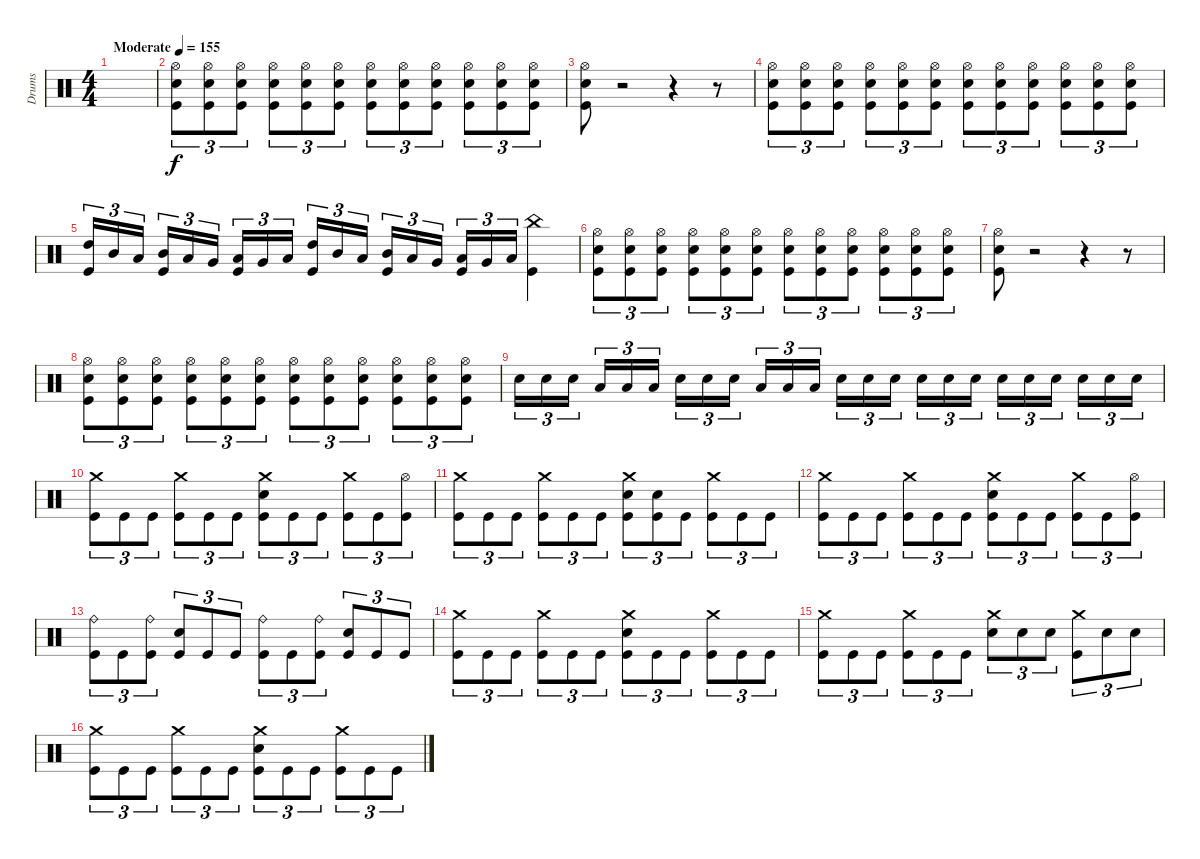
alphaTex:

\track ("Drums" "Drums") {instrument percussion}
\staff {score}
\articulation defaults
\ts (4 4)
\tempo (155 "Moderate")
\clef neutral
\ks c
|
("Hi-Hat (open)" "Electric Snare (hit)" "Kick (hit)").8{tu (3 2)} ("Hi-Hat (open)" "Electric Snare (hit)" "Kick (hit)").8{tu (3 2)} ("Hi-Hat (open)" "Electric Snare (hit)" "Kick (hit)").8{tu (3 2)} ("Hi-Hat (open)" "Electric Snare (hit)" "Kick (hit)").8{tu (3 2)} ("Hi-Hat (open)" "Electric Snare (hit)" "Kick (hit)").8{tu (3 2)} ("Hi-Hat (open)" "Electric Snare (hit)" "Kick (hit)").8{tu (3 2)} ("Hi-Hat (open)" "Electric Snare (hit)" "Kick (hit)").8{tu (3 2)} ("Hi-Hat (open)" "Electric Snare (hit)" "Kick (hit)").8{tu (3 2)} ("Hi-Hat (open)" "Electric Snare (hit)" "Kick (hit)").8{tu (3 2)} ("Hi-Hat (open)" "Electric Snare (hit)" "Kick (hit)").8{tu (3 2)} ("Hi-Hat (open)" "Electric Snare (hit)" "Kick (hit)").8{tu (3 2)} ("Hi-Hat (open)" "Electric Snare (hit)" "Kick (hit)").8{tu (3 2)} |
("Hi-Hat (open)" "Electric Snare (hit)" "Kick (hit)").8 r.2 r.4 r.8 |
("Hi-Hat (open)" "Electric Snare (hit)" "Kick (hit)").8{tu (3 2)} ("Hi-Hat (open)" "Electric Snare (hit)" "Kick (hit)").8{tu (3 2)} ("Hi-Hat (open)" "Electric Snare (hit)" "Kick (hit)").8{tu (3 2)} ("Hi-Hat (open)" "Electric Snare (hit)" "Kick (hit)").8{tu (3 2)} ("Hi-Hat (open)" "Electric Snare (hit)" "Kick (hit)").8{tu (3 2)} ("Hi-Hat (open)" "Electric Snare (hit)" "Kick (hit)").8{tu (3 2)} ("Hi-Hat (open)" "Electric Snare (hit)" "Kick (hit)").8{tu (3 2)} ("Hi-Hat (open)" "Electric Snare (hit)" "Kick (hit)").8{tu (3 2)} ("Hi-Hat (open)" "Electric Snare (hit)" "Kick (hit)").8{tu (3 2)} ("Hi-Hat (open)" "Electric Snare (hit)" "Kick (hit)").8{tu (3 2)} ("Hi-Hat (open)" "Electric Snare (hit)" "Kick (hit)").8{tu (3 2)} ("Hi-Hat (open)" "Electric Snare (hit)" "Kick (hit)").8{tu (3 2)} |
("High Tom (hit)" "Kick (hit)").16{tu (3 2)} "Mid Tom (hit)".16{tu (3 2)} "Low Tom (hit)".16{tu (3 2) beam splitsecondary} ("Mid Tom (hit)" "Kick (hit)").16{tu (3 2)} "Low Tom (hit)".16{tu (3 2)} "Very Low Tom (hit)".16{tu (3 2)} ("Low Tom (hit)" "Kick (hit)").16{tu (3 2)} "Very Low Tom (hit)".16{tu (3 2)} "Low Floor Tom (hit)".16{tu (3 2) beam splitsecondary} ("High Tom (hit)" "Kick (hit)").16{tu (3 2)} "Mid Tom (hit)".16{tu (3 2)} "Low Tom (hit)".16{tu (3 2)} ("Mid Tom (hit)" "Kick (hit)").16{tu (3 2)} "Low Tom (hit)".16{tu (3 2)} "Very Low Tom (hit)".16{tu (3 2) beam splitsecondary} ("Low Tom (hit)" "Kick (hit)").16{tu (3 2)} "Very Low Tom (hit)".16{tu (3 2)} "Low Floor Tom (hit)".16{tu (3 2)} ("China (hit)" "Kick (hit)").4 |
("Hi-Hat (open)" "Electric Snare (hit)" "Kick (hit)").8{tu (3 2)} ("Hi-Hat (open)" "Electric Snare (hit)" "Kick (hit)").8{tu (3 2)} ("Hi-Hat (open)" "Electric Snare (hit)" "Kick (hit)").8{tu (3 2)} ("Hi-Hat (open)" "Electric Snare (hit)" "Kick (hit)").8{tu (3 2)} ("Hi-Hat (open)" "Electric Snare (hit)" "Kick (hit)").8{tu (3 2)} ("Hi-Hat (open)" "Electric Snare (hit)" "Kick (hit)").8{tu (3 2)} ("Hi-Hat (open)" "Electric Snare (hit)" "Kick (hit)").8{tu (3 2)} ("Hi-Hat (open)" "Electric Snare (hit)" "Kick (hit)").8{tu (3 2)} ("Hi-Hat (open)" "Electric Snare (hit)" "Kick (hit)").8{tu (3 2)} ("Hi-Hat (open)" "Electric Snare (hit)" "Kick (hit)").8{tu (3 2)} ("Hi-Hat (open)" "Electric Snare (hit)" "Kick (hit)").8{tu (3 2)} ("Hi-Hat (open)" "Electric Snare (hit)" "Kick (hit)").8{tu (3 2)} |
("Hi-Hat (open)" "Electric Snare (hit)" "Kick (hit)").8 r.2 r.4 r.8 |
("Hi-Hat (open)" "Electric Snare (hit)" "Kick (hit)").8{tu (3 2)} ("Hi-Hat (open)" "Electric Snare (hit)" "Kick (hit)").8{tu (3 2)} ("Hi-Hat (open)" "Electric Snare (hit)" "Kick (hit)").8{tu (3 2)} ("Hi-Hat (open)" "Electric Snare (hit)" "Kick (hit)").8{tu (3 2)} ("Hi-Hat (open)" "Electric Snare (hit)" "Kick (hit)").8{tu (3 2)} ("Hi-Hat (open)" "Electric Snare (hit)" "Kick (hit)").8{tu (3 2)} ("Hi-Hat (open)" "Electric Snare (hit)" "Kick (hit)").8{tu (3 2)} ("Hi-Hat (open)" "Electric Snare (hit)" "Kick (hit)").8{tu (3 2)} ("Hi-Hat (open)" "Electric Snare (hit)" "Kick (hit)").8{tu (3 2)} ("Hi-Hat (open)" "Electric Snare (hit)" "Kick (hit)").8{tu (3 2)} ("Hi-Hat (open)" "Electric Snare (hit)" "Kick (hit)").8{tu (3 2)} ("Hi-Hat (open)" "Electric Snare (hit)" "Kick (hit)").8{tu (3 2)} |
"Electric Snare (hit)".16{tu (3 2)} "Electric Snare (hit)".16{tu (3 2)} "Electric Snare (hit)".16{tu (3 2) beam splitsecondary} "Low Tom (hit)".16{tu (3 2)} "Low Tom (hit)".16{tu (3 2)} "Low Tom (hit)".16{tu (3 2)} "Electric Snare (hit)".16{tu (3 2)} "Electric Snare (hit)".16{tu (3 2)} "Electric Snare (hit)".16{tu (3 2) beam splitsecondary} "Low Tom (hit)".16{tu (3 2)} "Low Tom (hit)".16{tu (3 2)} "Low Tom (hit)".16{tu (3 2)} "Electric Snare (hit)".16{tu (3 2)} "Electric Snare (hit)".16{tu (3 2)} "Electric Snare (hit)".16{tu (3 2) beam splitsecondary} "Electric Snare (hit)".16{tu (3 2)} "Electric Snare (hit)".16{tu (3 2)} "Electric Snare (hit)".16{tu (3 2)} "Electric Snare (hit)".16{tu (3 2)} "Electric Snare (hit)".16{tu (3 2)} "Electric Snare (hit)".16{tu (3 2) beam splitsecondary} "Electric Snare (hit)".16{tu (3 2)} "Electric Snare (hit)".16{tu (3 2)} "Electric Snare (hit)".16{tu (3 2)} |
("Crash medium (hit)" "Kick (hit)").8{tu (3 2)} "Kick (hit)".8{tu (3 2)} "Kick (hit)".8{tu (3 2)} ("Crash medium (hit)" "Kick (hit)").8{tu (3 2)} "Kick (hit)".8{tu (3 2)} "Kick (hit)".8{tu (3 2)} ("Crash medium (hit)" "Electric Snare (hit)" "Kick (hit)").8{tu (3 2)} "Kick (hit)".8{tu (3 2)} "Kick (hit)".8{tu (3 2)} ("Crash medium (hit)" "Kick (hit)").8{tu (3 2)} "Kick (hit)".8{tu (3 2)} ("Hi-Hat (open)" "Kick (hit)").8{tu (3 2)} |
("Crash medium (hit)" "Kick (hit)").8{tu (3 2)} "Kick (hit)".8{tu (3 2)} "Kick (hit)".8{tu (3 2)} ("Crash medium (hit)" "Kick (hit)").8{tu (3 2)} "Kick (hit)".8{tu (3 2)} "Kick (hit)".8{tu (3 2)} ("Crash medium (hit)" "Electric Snare (hit)" "Kick (hit)").8{tu (3 2)} ("Electric Snare (hit)" "Kick (hit)").8{tu (3 2)} "Kick (hit)".8{tu (3 2)} ("Crash medium (hit)" "Kick (hit)").8{tu (3 2)} "Kick (hit)".8{tu (3 2)} "Kick (hit)".8{tu (3 2)} |
("Crash medium (hit)" "Kick (hit)").8{tu (3 2)} "Kick (hit)".8{tu (3 2)} "Kick (hit)".8{tu (3 2)} ("Crash medium (hit)" "Kick (hit)").8{tu (3 2)} "Kick (hit)".8{tu (3 2)} "Kick (hit)".8{tu (3 2)} ("Crash medium (hit)" "Electric Snare (hit)" "Kick (hit)").8{tu (3 2)} "Kick (hit)".8{tu (3 2)} "Kick (hit)".8{tu (3 2)} ("Crash medium (hit)" "Kick (hit)").8{tu (3 2)} "Kick (hit)".8{tu (3 2)} ("Hi-Hat (open)" "Kick (hit)").8{tu (3 2)} |
("Ride (bell)" "Kick (hit)").8{tu (3 2)} "Kick (hit)".8{tu (3 2)} ("Ride (bell)" "Kick (hit)").8{tu (3 2)} ("Electric Snare (hit)" "Kick (hit)").8{tu (3 2)} "Kick (hit)".8{tu (3 2)} "Kick (hit)".8{tu (3 2)} ("Ride (bell)" "Kick (hit)").8{tu (3 2)} "Kick (hit)".8{tu (3 2)} ("Ride (bell)" "Kick (hit)").8{tu (3 2)} ("Electric Snare (hit)" "Kick (hit)").8{tu (3 2)} "Kick (hit)".8{tu (3 2)} "Kick (hit)".8{tu (3 2)} |
("Crash medium (hit)" "Kick (hit)").8{tu (3 2)} "Kick (hit)".8{tu (3 2)} "Kick (hit)".8{tu (3 2)} ("Crash medium (hit)" "Kick (hit)").8{tu (3 2)} "Kick (hit)".8{tu (3 2)} "Kick (hit)".8{tu (3 2)} ("Crash medium (hit)" "Electric Snare (hit)" "Kick (hit)").8{tu (3 2)} "Kick (hit)".8{tu (3 2)} "Kick (hit)".8{tu (3 2)} ("Crash medium (hit)" "Kick (hit)").8{tu (3 2)} "Kick (hit)".8{tu (3 2)} "Kick (hit)".8{tu (3 2)} |
("Crash medium (hit)" "Kick (hit)").8{tu (3 2)} "Kick (hit)".8{tu (3 2)} "Kick (hit)".8{tu (3 2)} ("Crash medium (hit)" "Kick (hit)").8{tu (3 2)} "Kick (hit)".8{tu (3 2)} "Kick (hit)".8{tu (3 2)} ("Crash medium (hit)" "Electric Snare (hit)").8{tu (3 2)} "Electric Snare (hit)".8{tu (3 2)} "Electric Snare (hit)".8{tu (3 2)} ("Crash medium (hit)" "Kick (hit)").8{tu (3 2)} "Electric Snare (hit)".8{tu (3 2)} "Electric Snare (hit)".8{tu (3 2)} |
("Crash medium (hit)" "Kick (hit)").8{tu (3 2)} "Kick (hit)".8{tu (3 2)} "Kick (hit)".8{tu (3 2)} ("Crash medium (hit)" "Kick (hit)").8{tu (3 2)} "Kick (hit)".8{tu (3 2)} "Kick (hit)".8{tu (3 2)} ("Crash medium (hit)" "Electric Snare (hit)" "Kick (hit)").8{tu (3 2)} "Kick (hit)".8{tu (3 2)} "Kick (hit)".8{tu (3 2)} ("Crash medium (hit)" "Kick (hit)").8{tu (3 2)} "Kick (hit)".8{tu (3 2)} "Kick (hit)".8{tu (3 2)}
